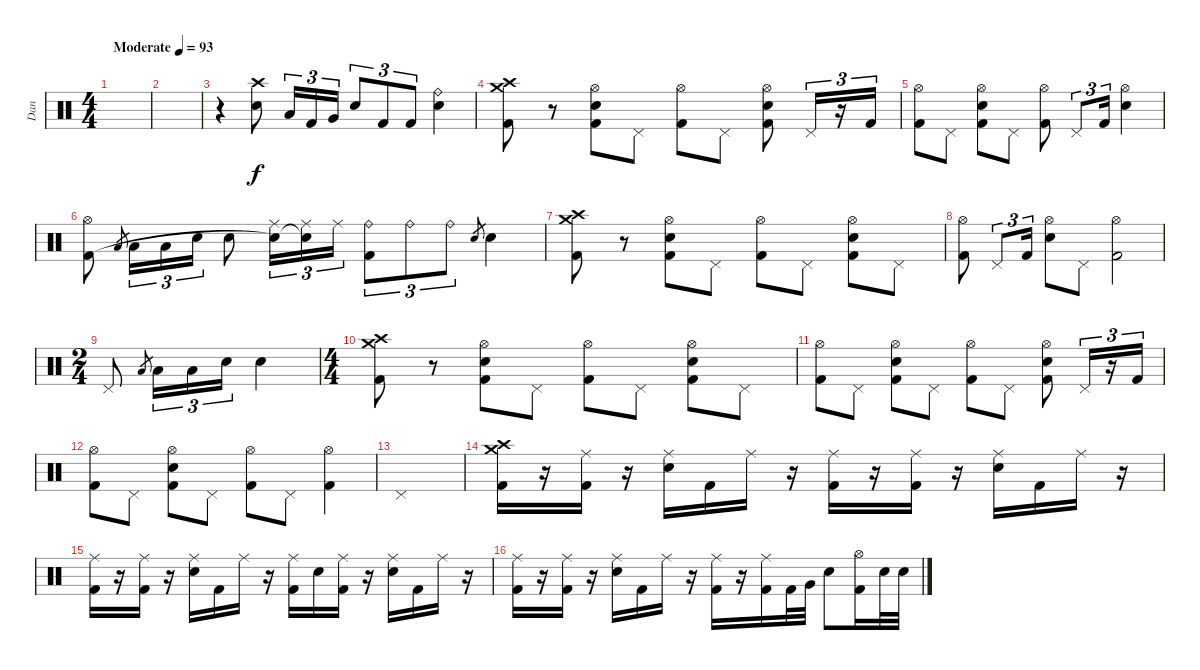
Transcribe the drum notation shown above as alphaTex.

\track ("Dan" "Dan") {instrument percussion}
\staff {score}
\articulation defaults
\ts (4 4)
\tempo (93 "Moderate")
\clef neutral
\ks c
|
|
r.4 ("Crash high (hit)" "Electric Snare (hit)").8 "Low Tom (hit)".16{tu (3 2)} "Kick (hit) 2".16{tu (3 2)} "Very Low Tom (hit)".16{tu (3 2)} "Electric Snare (hit)".8{tu (3 2)} "Kick (hit) 2".8{tu (3 2)} "Kick (hit) 2".8{tu (3 2)} ("Ride (bell)" "Electric Snare (hit)").4 |
("Crash high (hit)" "Crash medium (hit)" "Kick (hit) 2").8 r.8 ("Hi-Hat (open)" "Electric Snare (hit)" "Kick (hit) 2").8 "Pedal Hi-Hat (hit)".8 ("Hi-Hat (open)" "Kick (hit) 2").8 "Pedal Hi-Hat (hit)".8 ("Hi-Hat (open)" "Electric Snare (hit)" "Kick (hit) 2").8 "Pedal Hi-Hat (hit)".16{tu (3 2)} r.16{tu (3 2)} "Kick (hit) 2".16{tu (3 2)} |
("Hi-Hat (open)" "Kick (hit) 2").8 "Pedal Hi-Hat (hit)".8 ("Hi-Hat (open)" "Electric Snare (hit)" "Kick (hit) 2").8 "Pedal Hi-Hat (hit)".8 ("Hi-Hat (open)" "Kick (hit) 2").8 "Pedal Hi-Hat (hit)".8{tu (3 2)} "Kick (hit) 2".16{tu (3 2)} ("Hi-Hat (open)" "Electric Snare (hit)").4 |
("Hi-Hat (open)" "Kick (hit) 2").8 "Low Tom (hit)".8{gr} "Low Tom (hit)".16{tu (3 2)} "Low Tom (hit)".16{tu (3 2)} "Electric Snare (hit)".16{tu (3 2)} "Electric Snare (hit)".8 ("Ride (middle)" "Snare (hit)"{t}).16{tu (3 2)} ("Ride (middle)" "Snare (hit)"{t}).16{tu (3 2)} "Ride (middle)".16{tu (3 2)} ("Ride (bell)" "Kick (hit) 2").8{tu (3 2)} "Ride (bell)".8{tu (3 2)} "Ride (bell)".8{tu (3 2)} "Electric Snare (hit)".8{gr} "Electric Snare (hit)".4 |
("Crash high (hit)" "Crash medium (hit)" "Kick (hit) 2").8 r.8 ("Hi-Hat (open)" "Electric Snare (hit)" "Kick (hit) 2").8 "Pedal Hi-Hat (hit)".8 ("Hi-Hat (open)" "Kick (hit) 2").8 "Pedal Hi-Hat (hit)".8 ("Hi-Hat (open)" "Electric Snare (hit)" "Kick (hit) 2").8 "Pedal Hi-Hat (hit)".8 |
("Hi-Hat (open)" "Kick (hit) 2").8 "Pedal Hi-Hat (hit)".8{tu (3 2)} "Kick (hit) 2".16{tu (3 2)} ("Hi-Hat (open)" "Electric Snare (hit)").8 "Pedal Hi-Hat (hit)".8 ("Hi-Hat (open)" "Kick (hit) 2").2 |
\ts (2 4)
"Pedal Hi-Hat (hit)".8 "Low Tom (hit)".8{gr} "Low Tom (hit)".16{tu (3 2)} "Low Tom (hit)".16{tu (3 2)} "Electric Snare (hit)".16{tu (3 2)} "Electric Snare (hit)".4 |
\ts (4 4)
("Crash high (hit)" "Crash medium (hit)" "Kick (hit) 2").8 r.8 ("Hi-Hat (open)" "Electric Snare (hit)" "Kick (hit) 2").8 "Pedal Hi-Hat (hit)".8 ("Hi-Hat (open)" "Kick (hit) 2").8 "Pedal Hi-Hat (hit)".8 ("Hi-Hat (open)" "Electric Snare (hit)" "Kick (hit) 2").8 "Pedal Hi-Hat (hit)".8 |
("Hi-Hat (open)" "Kick (hit) 2").8 "Pedal Hi-Hat (hit)".8 ("Hi-Hat (open)" "Electric Snare (hit)" "Kick (hit) 2").8 "Pedal Hi-Hat (hit)".8 ("Hi-Hat (open)" "Kick (hit) 2").8 "Pedal Hi-Hat (hit)".8 ("Hi-Hat (open)" "Electric Snare (hit)" "Kick (hit) 2").8 "Pedal Hi-Hat (hit)".16{tu (3 2)} r.16{tu (3 2)} "Kick (hit) 2".16{tu (3 2)} |
("Hi-Hat (open)" "Kick (hit) 2").8 "Pedal Hi-Hat (hit)".8 ("Hi-Hat (open)" "Electric Snare (hit)" "Kick (hit) 2").8 "Pedal Hi-Hat (hit)".8 ("Hi-Hat (open)" "Kick (hit) 2").8 "Pedal Hi-Hat (hit)".8 ("Hi-Hat (open)" "Kick (hit) 2").4 |
"Pedal Hi-Hat (hit)".1 |
("Crash high (hit)" "Crash medium (hit)" "Kick (hit) 2").16 r.16 ("Ride (middle)" "Kick (hit) 2").16 r.16 ("Ride (middle)" "Electric Snare (hit)").16 "Kick (hit) 2".16 "Ride (middle)".16 r.16 ("Ride (middle)" "Kick (hit) 2").16 r.16 ("Ride (middle)" "Kick (hit) 2").16 r.16 ("Ride (middle)" "Electric Snare (hit)").16 "Kick (hit) 2".16 "Ride (middle)".16 r.16 |
("Ride (middle)" "Kick (hit) 2").16 r.16 ("Ride (middle)" "Kick (hit) 2").16 r.16 ("Ride (middle)" "Electric Snare (hit)").16 "Kick (hit) 2".16 "Ride (middle)".16 r.16 ("Ride (middle)" "Kick (hit) 2").16 "Electric Snare (hit)".16 ("Ride (middle)" "Kick (hit) 2").16 r.16 ("Ride (middle)" "Electric Snare (hit)").16 "Kick (hit) 2".16 "Ride (middle)".16 r.16 |
("Ride (middle)" "Kick (hit) 2").16 r.16 ("Ride (middle)" "Kick (hit) 2").16 r.16 ("Ride (middle)" "Electric Snare (hit)").16 "Kick (hit) 2".16 "Ride (middle)".16 r.16 ("Ride (middle)" "Kick (hit) 2").16 r.16 ("Ride (middle)" "Kick (hit) 2").16 "Kick (hit) 2".32 "Very Low Tom (hit)".32 "Electric Snare (hit)".8 ("Hi-Hat (open)" "Kick (hit) 2").16 "Electric Snare (hit)".32 "Electric Snare (hit)".32
